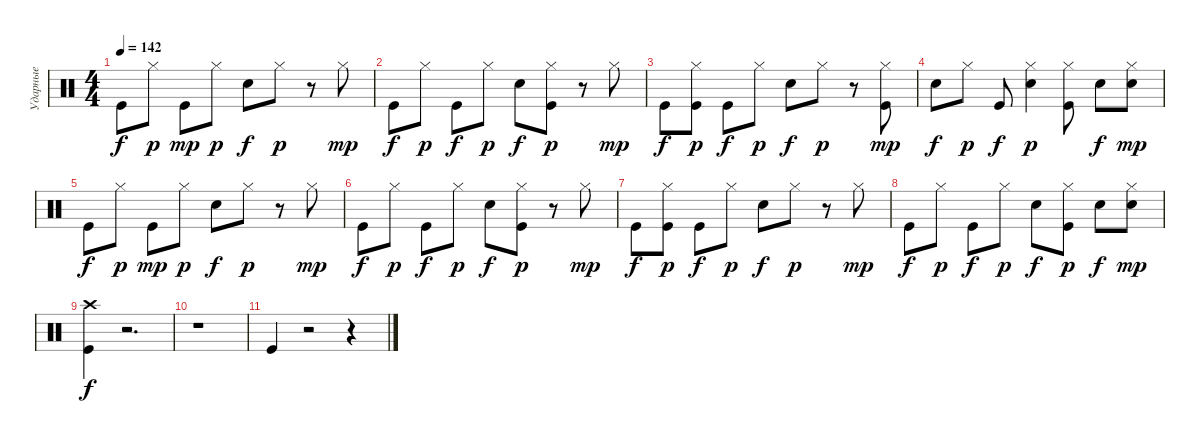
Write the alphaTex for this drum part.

\track ("Ударные" "Ударные") {instrument percussion}
\staff {score}
\articulation defaults
\ts (4 4)
\tempo 142
\clef neutral
\ks c "Kick (hit)".8{dy f} "Hi-Hat (closed)".8{dy p} "Kick (hit)".8{dy mp} "Hi-Hat (closed)".8{dy p} "Snare (hit) 2".8{dy f} "Hi-Hat (closed)".8{dy p}
r.8 "Hi-Hat (closed)".8{dy mp} |
"Kick (hit)".8{dy f} "Hi-Hat (closed)".8{dy p} "Kick (hit)".8{dy f} "Hi-Hat (closed)".8{dy p} "Snare (hit) 2".8{dy f} ("Kick (hit)" "Hi-Hat (closed)").8{dy p} r.8 "Hi-Hat (closed)".8{dy mp} |
"Kick (hit)".8{dy f} ("Kick (hit)" "Hi-Hat (closed)").8{dy p} "Kick (hit)".8{dy f} "Hi-Hat (closed)".8{dy p} "Snare (hit) 2".8{dy f} "Hi-Hat (closed)".8{dy p} r.8 ("Kick (hit)" "Hi-Hat (closed)").8{dy mp} |
"Snare (hit) 2".8{dy f} "Hi-Hat (closed)".8{dy p} "Kick (hit)".8{dy f} ("Snare (hit) 2" "Hi-Hat (closed)").4{dy p} ("Kick (hit)" "Hi-Hat (closed)").8 "Snare (hit) 2".8{dy f} ("Snare (hit) 2" "Hi-Hat (closed)").8{dy mp} |
"Kick (hit)".8{dy f} "Hi-Hat (closed)".8{dy p} "Kick (hit)".8{dy mp} "Hi-Hat (closed)".8{dy p} "Snare (hit) 2".8{dy f} "Hi-Hat (closed)".8{dy p} r.8 "Hi-Hat (closed)".8{dy mp} |
"Kick (hit)".8{dy f} "Hi-Hat (closed)".8{dy p} "Kick (hit)".8{dy f} "Hi-Hat (closed)".8{dy p} "Snare (hit) 2".8{dy f} ("Kick (hit)" "Hi-Hat (closed)").8{dy p} r.8 "Hi-Hat (closed)".8{dy mp} |
"Kick (hit)".8{dy f} ("Kick (hit)" "Hi-Hat (closed)").8{dy p} "Kick (hit)".8{dy f} "Hi-Hat (closed)".8{dy p} "Snare (hit) 2".8{dy f} "Hi-Hat (closed)".8{dy p} r.8 "Hi-Hat (closed)".8{dy mp} |
"Kick (hit)".8{dy f} "Hi-Hat (closed)".8{dy p} "Kick (hit)".8{dy f} "Hi-Hat (closed)".8{dy p} "Snare (hit) 2".8{dy f} ("Kick (hit)" "Hi-Hat (closed)").8{dy p} "Snare (hit) 2".8{dy f} ("Snare (hit) 2" "Hi-Hat (closed)").8{dy mp} |
("Crash high (hit)" "Kick (hit)").4{dy f} r.2{d} |
r.1 |
"Kick (hit)".4 r.2 r.4
